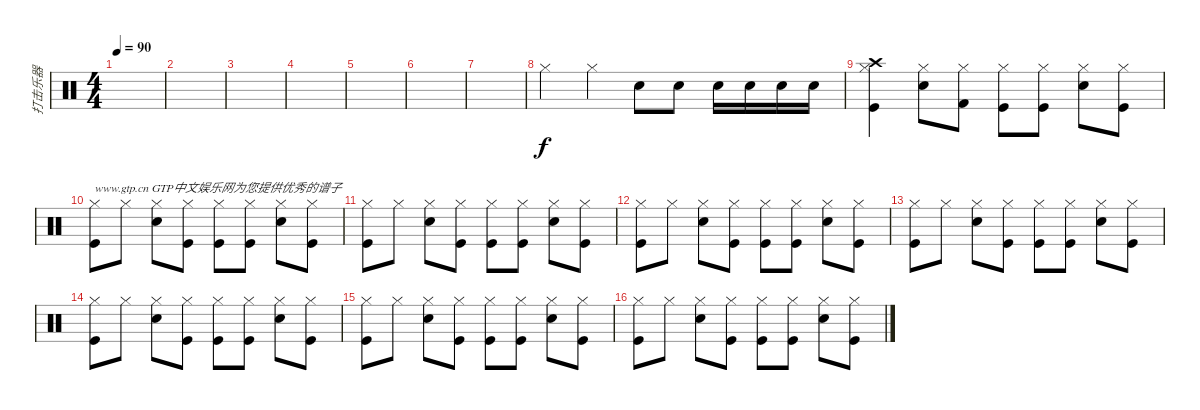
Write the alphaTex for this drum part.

\track ("打击乐器" "打击乐器") {instrument percussion}
\staff {score}
\articulation defaults
\ts (4 4)
\tempo 90
\clef neutral
\ks c
|
|
|
|
|
|
|
"Hi-Hat (closed)".4 "Hi-Hat (closed)".4 "Electric Snare (hit)".8 "Electric Snare (hit)".8 "Electric Snare (hit)".16 "Electric Snare (hit)".16 "Snare (hit) 2".16 "Snare (hit) 2".16 |
("Hi-Hat (closed)" "Crash high (hit)" "Kick (hit)").4 ("Hi-Hat (closed)" "Snare (hit) 2").8 ("Hi-Hat (closed)" "Kick (hit) 2").8 ("Hi-Hat (closed)" "Kick (hit)").8 ("Hi-Hat (closed)" "Kick (hit)").8 ("Hi-Hat (closed)" "Snare (hit) 2").8 ("Hi-Hat (closed)" "Kick (hit)").8 |
("Hi-Hat (closed)" "Kick (hit)").8{txt "www.gtp.cn GTP中文娱乐网为您提供优秀的谱子"} "Hi-Hat (closed)".8 ("Hi-Hat (closed)" "Snare (hit) 2").8 ("Hi-Hat (closed)" "Kick (hit)").8 ("Hi-Hat (closed)" "Kick (hit)").8 ("Hi-Hat (closed)" "Kick (hit)").8 ("Hi-Hat (closed)" "Snare (hit) 2").8 ("Hi-Hat (closed)" "Kick (hit)").8 |
("Hi-Hat (closed)" "Kick (hit)").8 "Hi-Hat (closed)".8 ("Hi-Hat (closed)" "Snare (hit) 2").8 ("Hi-Hat (closed)" "Kick (hit)").8 ("Hi-Hat (closed)" "Kick (hit)").8 ("Hi-Hat (closed)" "Kick (hit)").8 ("Hi-Hat (closed)" "Snare (hit) 2").8 ("Hi-Hat (closed)" "Kick (hit)").8 |
("Hi-Hat (closed)" "Kick (hit)").8 "Hi-Hat (closed)".8 ("Hi-Hat (closed)" "Snare (hit) 2").8 ("Hi-Hat (closed)" "Kick (hit)").8 ("Hi-Hat (closed)" "Kick (hit)").8 ("Hi-Hat (closed)" "Kick (hit)").8 ("Hi-Hat (closed)" "Snare (hit) 2").8 ("Hi-Hat (closed)" "Kick (hit)").8 |
("Hi-Hat (closed)" "Kick (hit)").8 "Hi-Hat (closed)".8 ("Hi-Hat (closed)" "Snare (hit) 2").8 ("Hi-Hat (closed)" "Kick (hit)").8 ("Hi-Hat (closed)" "Kick (hit)").8 ("Hi-Hat (closed)" "Kick (hit)").8 ("Hi-Hat (closed)" "Snare (hit) 2").8 ("Hi-Hat (closed)" "Kick (hit)").8 |
("Hi-Hat (closed)" "Kick (hit)").8 "Hi-Hat (closed)".8 ("Hi-Hat (closed)" "Snare (hit) 2").8 ("Hi-Hat (closed)" "Kick (hit)").8 ("Hi-Hat (closed)" "Kick (hit)").8 ("Hi-Hat (closed)" "Kick (hit)").8 ("Hi-Hat (closed)" "Snare (hit) 2").8 ("Hi-Hat (closed)" "Kick (hit)").8 |
("Hi-Hat (closed)" "Kick (hit)").8 "Hi-Hat (closed)".8 ("Hi-Hat (closed)" "Snare (hit) 2").8 ("Hi-Hat (closed)" "Kick (hit)").8 ("Hi-Hat (closed)" "Kick (hit)").8 ("Hi-Hat (closed)" "Kick (hit)").8 ("Hi-Hat (closed)" "Snare (hit) 2").8 ("Hi-Hat (closed)" "Kick (hit)").8 |
("Hi-Hat (closed)" "Kick (hit)").8 "Hi-Hat (closed)".8 ("Hi-Hat (closed)" "Snare (hit) 2").8 ("Hi-Hat (closed)" "Kick (hit)").8 ("Hi-Hat (closed)" "Kick (hit)").8 ("Hi-Hat (closed)" "Kick (hit)").8 ("Hi-Hat (closed)" "Snare (hit) 2").8 ("Hi-Hat (closed)" "Kick (hit)").8
